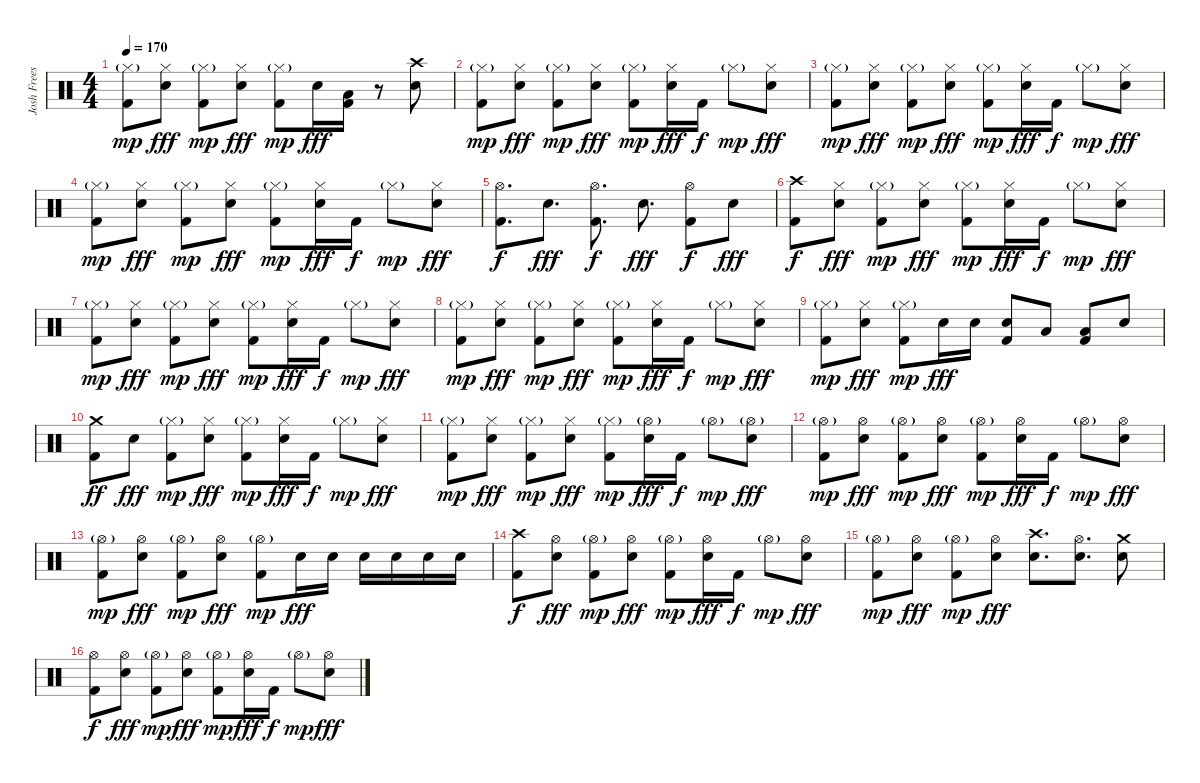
\track ("Josh Freese" "Josh Frees") {solo instrument percussion}
\staff
\articulation defaults
\ts (4 4)
\tempo 170
\clef neutral
\ks c
("Hi-Hat (closed)"{g} "Kick (hit) 2").8{dy mp} ("Hi-Hat (closed)" "Electric Snare (hit)").8{dy fff} ("Hi-Hat (closed)"{g} "Kick (hit) 2").8{dy mp} ("Hi-Hat (closed)" "Electric Snare (hit)").8{dy fff} ("Hi-Hat (closed)"{g} "Kick (hit) 2").8{dy mp} "Electric Snare (hit)".16{dy fff} ("Low Tom (hit)" "Kick (hit) 2").16 r.8 ("Crash high (hit)" "Electric Snare (hit)").8 |
("Hi-Hat (closed)"{g} "Kick (hit) 2").8{dy mp} ("Hi-Hat (closed)" "Electric Snare (hit)").8{dy fff} ("Hi-Hat (closed)"{g} "Kick (hit) 2").8{dy mp} ("Hi-Hat (closed)" "Electric Snare (hit)").8{dy fff} ("Hi-Hat (closed)"{g} "Kick (hit) 2").8{dy mp} ("Hi-Hat (closed)" "Electric Snare (hit)").16{dy fff} "Kick (hit) 2".16{dy f} "Hi-Hat (closed)"{g}.8{dy mp} ("Hi-Hat (closed)" "Electric Snare (hit)").8{dy fff} |
("Hi-Hat (closed)"{g} "Kick (hit) 2").8{dy mp} ("Hi-Hat (closed)" "Electric Snare (hit)").8{dy fff} ("Hi-Hat (closed)"{g} "Kick (hit) 2").8{dy mp} ("Hi-Hat (closed)" "Electric Snare (hit)").8{dy fff} ("Hi-Hat (closed)"{g} "Kick (hit) 2").8{dy mp} ("Hi-Hat (closed)" "Electric Snare (hit)").16{dy fff} "Kick (hit) 2".16{dy f} "Hi-Hat (closed)"{g}.8{dy mp} ("Hi-Hat (closed)" "Electric Snare (hit)").8{dy fff} |
("Hi-Hat (closed)"{g} "Kick (hit) 2").8{dy mp} ("Hi-Hat (closed)" "Electric Snare (hit)").8{dy fff} ("Hi-Hat (closed)"{g} "Kick (hit) 2").8{dy mp} ("Hi-Hat (closed)" "Electric Snare (hit)").8{dy fff} ("Hi-Hat (closed)"{g} "Kick (hit) 2").8{dy mp} ("Hi-Hat (closed)" "Electric Snare (hit)").16{dy fff} "Kick (hit) 2".16{dy f} "Hi-Hat (closed)"{g}.8{dy mp} ("Hi-Hat (closed)" "Electric Snare (hit)").8{dy fff} |
("Hi-Hat (open)" "Kick (hit) 2").8{d dy f} "Electric Snare (hit)".8{d dy fff} ("Hi-Hat (open)" "Kick (hit) 2").8{d dy f} "Electric Snare (hit)".8{d dy fff} ("Hi-Hat (open)" "Kick (hit) 2").8{dy f} "Electric Snare (hit)".8{dy fff} |
("Crash high (hit)" "Kick (hit) 2").8{dy f} ("Hi-Hat (closed)" "Electric Snare (hit)").8{dy fff} ("Hi-Hat (closed)"{g} "Kick (hit) 2").8{dy mp} ("Hi-Hat (closed)" "Electric Snare (hit)").8{dy fff} ("Hi-Hat (closed)"{g} "Kick (hit) 2").8{dy mp} ("Hi-Hat (closed)" "Electric Snare (hit)").16{dy fff} "Kick (hit) 2".16{dy f} "Hi-Hat (closed)"{g}.8{dy mp} ("Hi-Hat (closed)" "Electric Snare (hit)").8{dy fff} |
("Hi-Hat (closed)"{g} "Kick (hit) 2").8{dy mp} ("Hi-Hat (closed)" "Electric Snare (hit)").8{dy fff} ("Hi-Hat (closed)"{g} "Kick (hit) 2").8{dy mp} ("Hi-Hat (closed)" "Electric Snare (hit)").8{dy fff} ("Hi-Hat (closed)"{g} "Kick (hit) 2").8{dy mp} ("Hi-Hat (closed)" "Electric Snare (hit)").16{dy fff} "Kick (hit) 2".16{dy f} "Hi-Hat (closed)"{g}.8{dy mp} ("Hi-Hat (closed)" "Electric Snare (hit)").8{dy fff} |
("Hi-Hat (closed)"{g} "Kick (hit) 2").8{dy mp} ("Hi-Hat (closed)" "Electric Snare (hit)").8{dy fff} ("Hi-Hat (closed)"{g} "Kick (hit) 2").8{dy mp} ("Hi-Hat (closed)" "Electric Snare (hit)").8{dy fff} ("Hi-Hat (closed)"{g} "Kick (hit) 2").8{dy mp} ("Hi-Hat (closed)" "Electric Snare (hit)").16{dy fff} "Kick (hit) 2".16{dy f} "Hi-Hat (closed)"{g}.8{dy mp} ("Hi-Hat (closed)" "Electric Snare (hit)").8{dy fff} |
("Hi-Hat (closed)"{g} "Kick (hit) 2").8{dy mp} ("Hi-Hat (closed)" "Electric Snare (hit)").8{dy fff} ("Hi-Hat (closed)"{g} "Kick (hit) 2").8{dy mp} "Electric Snare (hit)".16{dy fff} "Electric Snare (hit)".16 ("Electric Snare (hit)" "Kick (hit) 2").8 "Low Tom (hit)".8 ("Low Floor Tom (hit)" "Kick (hit) 2").8 "Electric Snare (hit)".8 |
("Crash medium (hit)" "Kick (hit) 2").8{dy ff} "Electric Snare (hit)".8{dy fff} ("Hi-Hat (closed)"{g} "Kick (hit) 2").8{dy mp} ("Hi-Hat (closed)" "Electric Snare (hit)").8{dy fff} ("Hi-Hat (closed)"{g} "Kick (hit) 2").8{dy mp} ("Hi-Hat (closed)" "Electric Snare (hit)").16{dy fff} "Kick (hit) 2".16{dy f} "Hi-Hat (closed)"{g}.8{dy mp} ("Hi-Hat (closed)" "Electric Snare (hit)").8{dy fff} |
("Hi-Hat (closed)"{g} "Kick (hit) 2").8{dy mp} ("Hi-Hat (closed)" "Electric Snare (hit)").8{dy fff} ("Hi-Hat (closed)"{g} "Kick (hit) 2").8{dy mp} ("Hi-Hat (closed)" "Electric Snare (hit)").8{dy fff} ("Hi-Hat (closed)"{g} "Kick (hit) 2").8{dy mp} ("Hi-Hat (open)"{g} "Electric Snare (hit)").16{dy fff} "Kick (hit) 2".16{dy f} "Hi-Hat (open)"{g}.8{dy mp} ("Hi-Hat (open)"{g} "Electric Snare (hit)").8{dy fff} |
("Hi-Hat (open)"{g} "Kick (hit) 2").8{dy mp} ("Hi-Hat (open)" "Electric Snare (hit)").8{dy fff} ("Hi-Hat (open)"{g} "Kick (hit) 2").8{dy mp} ("Hi-Hat (open)" "Electric Snare (hit)").8{dy fff} ("Hi-Hat (open)"{g} "Kick (hit) 2").8{dy mp} ("Hi-Hat (open)" "Electric Snare (hit)").16{dy fff} "Kick (hit) 2".16{dy f} "Hi-Hat (open)"{g}.8{dy mp} ("Hi-Hat (open)" "Electric Snare (hit)").8{dy fff} |
("Hi-Hat (open)"{g} "Kick (hit) 2").8{dy mp} ("Hi-Hat (open)" "Electric Snare (hit)").8{dy fff} ("Hi-Hat (open)"{g} "Kick (hit) 2").8{dy mp} ("Hi-Hat (open)" "Electric Snare (hit)").8{dy fff} ("Hi-Hat (open)"{g} "Kick (hit) 2").8{dy mp} "Electric Snare (hit)".16{dy fff} "Electric Snare (hit)".16 "Electric Snare (hit)".16 "Electric Snare (hit)".16 "Electric Snare (hit)".16 "Electric Snare (hit)".16 |
("Crash high (hit)" "Kick (hit) 2").8{dy f} ("Hi-Hat (open)" "Electric Snare (hit)").8{dy fff} ("Hi-Hat (open)"{g} "Kick (hit) 2").8{dy mp} ("Hi-Hat (open)" "Electric Snare (hit)").8{dy fff} ("Hi-Hat (open)"{g} "Kick (hit) 2").8{dy mp} ("Hi-Hat (open)" "Electric Snare (hit)").16{dy fff} "Kick (hit) 2".16{dy f} "Hi-Hat (open)"{g}.8{dy mp} ("Hi-Hat (open)" "Electric Snare (hit)").8{dy fff} |
("Hi-Hat (open)"{g} "Kick (hit) 2").8{dy mp} ("Hi-Hat (open)" "Electric Snare (hit)").8{dy fff} ("Hi-Hat (open)"{g} "Kick (hit) 2").8{dy mp} ("Hi-Hat (open)" "Electric Snare (hit)").8{dy fff} ("Crash high (hit)" "Electric Snare (hit)").8{d} ("Hi-Hat (open)" "Electric Snare (hit)").8{d} ("Crash medium (hit)" "Electric Snare (hit)").8 |
("Hi-Hat (open)" "Kick (hit) 2").8{dy f} ("Hi-Hat (open)" "Electric Snare (hit)").8{dy fff} ("Hi-Hat (open)"{g} "Kick (hit) 2").8{dy mp} ("Hi-Hat (open)" "Electric Snare (hit)").8{dy fff} ("Hi-Hat (open)"{g} "Kick (hit) 2").8{dy mp} ("Hi-Hat (open)" "Electric Snare (hit)").16{dy fff} "Kick (hit) 2".16{dy f} "Hi-Hat (open)"{g}.8{dy mp} ("Hi-Hat (open)" "Electric Snare (hit)").8{dy fff}
